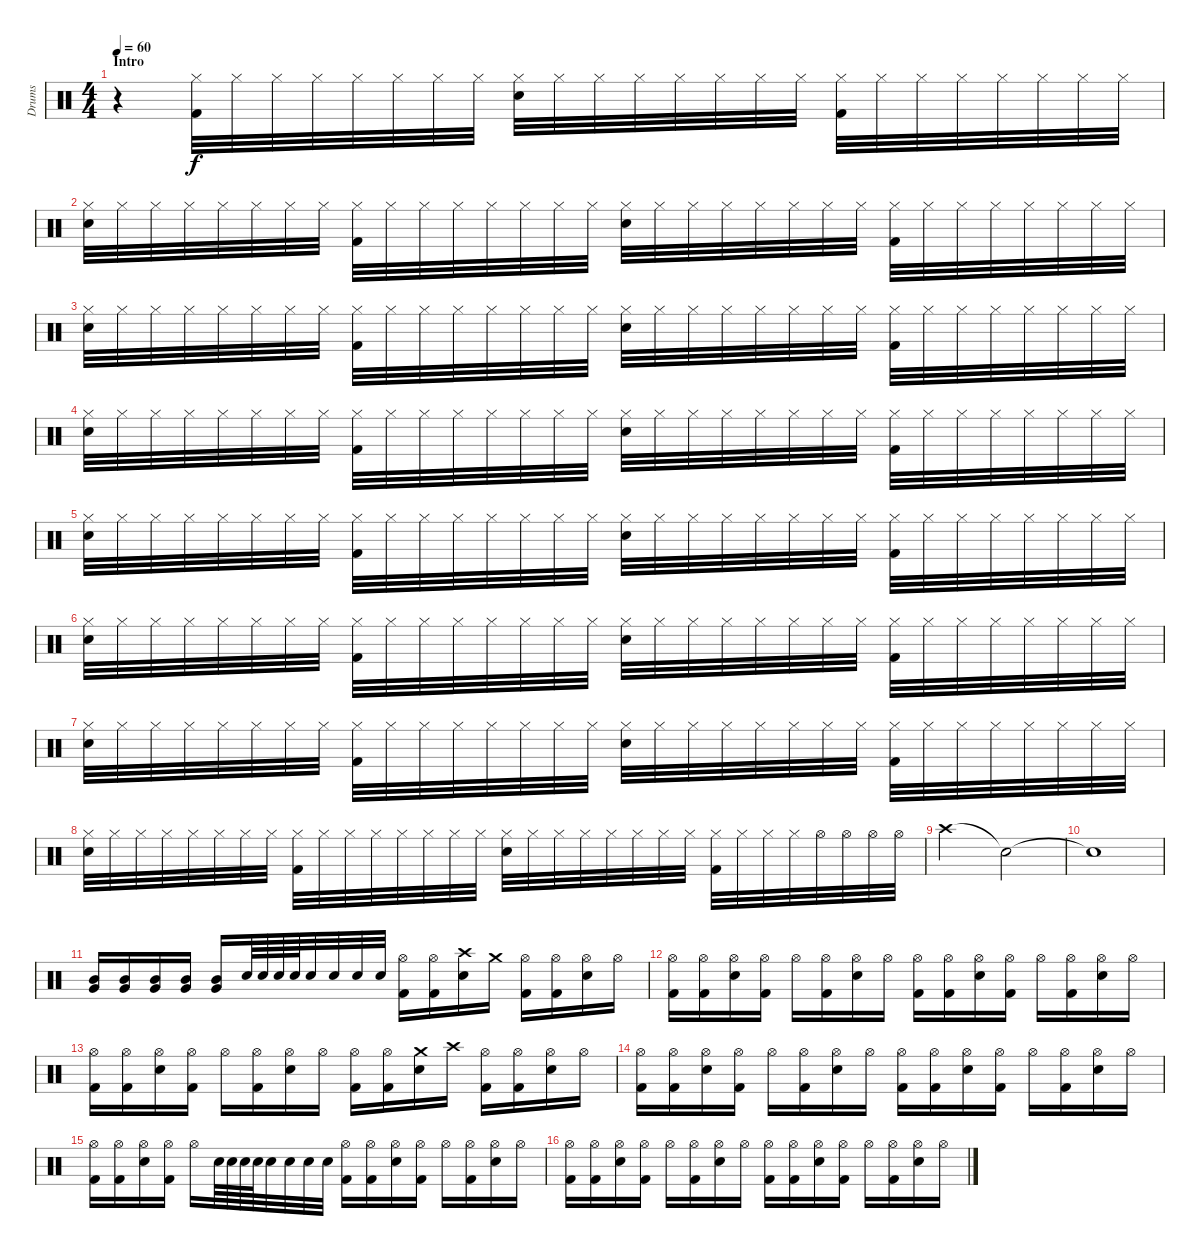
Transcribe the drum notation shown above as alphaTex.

\track ("Drums" "Drums") {instrument percussion}
\staff {score}
\articulation defaults
\ts (4 4)
\section ("" "Intro")
\tempo 60
\clef neutral
\ks c
r.4{dy f} ("Hi-Hat (closed)" "Kick (hit) 2").32 "Hi-Hat (closed)".32 "Hi-Hat (closed)".32 "Hi-Hat (closed)".32 "Hi-Hat (closed)".32 "Hi-Hat (closed)".32 "Hi-Hat (closed)".32 "Hi-Hat (closed)".32 ("Hi-Hat (closed)" "Electric Snare (hit)").32 "Hi-Hat (closed)".32 "Hi-Hat (closed)".32 "Hi-Hat (closed)".32 "Hi-Hat (closed)".32 "Hi-Hat (closed)".32 "Hi-Hat (closed)".32 "Hi-Hat (closed)".32 ("Hi-Hat (closed)" "Kick (hit) 2").32 "Hi-Hat (closed)".32 "Hi-Hat (closed)".32 "Hi-Hat (closed)".32 "Hi-Hat (closed)".32 "Hi-Hat (closed)".32 "Hi-Hat (closed)".32 "Hi-Hat (closed)".32 |
("Hi-Hat (closed)" "Electric Snare (hit)").32 "Hi-Hat (closed)".32 "Hi-Hat (closed)".32 "Hi-Hat (closed)".32 "Hi-Hat (closed)".32 "Hi-Hat (closed)".32 "Hi-Hat (closed)".32 "Hi-Hat (closed)".32 ("Hi-Hat (closed)" "Kick (hit) 2").32 "Hi-Hat (closed)".32 "Hi-Hat (closed)".32 "Hi-Hat (closed)".32 "Hi-Hat (closed)".32 "Hi-Hat (closed)".32 "Hi-Hat (closed)".32 "Hi-Hat (closed)".32 ("Hi-Hat (closed)" "Electric Snare (hit)").32 "Hi-Hat (closed)".32 "Hi-Hat (closed)".32 "Hi-Hat (closed)".32 "Hi-Hat (closed)".32 "Hi-Hat (closed)".32 "Hi-Hat (closed)".32 "Hi-Hat (closed)".32 ("Hi-Hat (closed)" "Kick (hit) 2").32 "Hi-Hat (closed)".32 "Hi-Hat (closed)".32 "Hi-Hat (closed)".32 "Hi-Hat (closed)".32 "Hi-Hat (closed)".32 "Hi-Hat (closed)".32 "Hi-Hat (closed)".32 |
("Hi-Hat (closed)" "Electric Snare (hit)").32 "Hi-Hat (closed)".32 "Hi-Hat (closed)".32 "Hi-Hat (closed)".32 "Hi-Hat (closed)".32 "Hi-Hat (closed)".32 "Hi-Hat (closed)".32 "Hi-Hat (closed)".32 ("Hi-Hat (closed)" "Kick (hit) 2").32 "Hi-Hat (closed)".32 "Hi-Hat (closed)".32 "Hi-Hat (closed)".32 "Hi-Hat (closed)".32 "Hi-Hat (closed)".32 "Hi-Hat (closed)".32 "Hi-Hat (closed)".32 ("Hi-Hat (closed)" "Electric Snare (hit)").32 "Hi-Hat (closed)".32 "Hi-Hat (closed)".32 "Hi-Hat (closed)".32 "Hi-Hat (closed)".32 "Hi-Hat (closed)".32 "Hi-Hat (closed)".32 "Hi-Hat (closed)".32 ("Hi-Hat (closed)" "Kick (hit) 2").32 "Hi-Hat (closed)".32 "Hi-Hat (closed)".32 "Hi-Hat (closed)".32 "Hi-Hat (closed)".32 "Hi-Hat (closed)".32 "Hi-Hat (closed)".32 "Hi-Hat (closed)".32 |
("Hi-Hat (closed)" "Electric Snare (hit)").32 "Hi-Hat (closed)".32 "Hi-Hat (closed)".32 "Hi-Hat (closed)".32 "Hi-Hat (closed)".32 "Hi-Hat (closed)".32 "Hi-Hat (closed)".32 "Hi-Hat (closed)".32 ("Hi-Hat (closed)" "Kick (hit) 2").32 "Hi-Hat (closed)".32 "Hi-Hat (closed)".32 "Hi-Hat (closed)".32 "Hi-Hat (closed)".32 "Hi-Hat (closed)".32 "Hi-Hat (closed)".32 "Hi-Hat (closed)".32 ("Hi-Hat (closed)" "Electric Snare (hit)").32 "Hi-Hat (closed)".32 "Hi-Hat (closed)".32 "Hi-Hat (closed)".32 "Hi-Hat (closed)".32 "Hi-Hat (closed)".32 "Hi-Hat (closed)".32 "Hi-Hat (closed)".32 ("Hi-Hat (closed)" "Kick (hit) 2").32 "Hi-Hat (closed)".32 "Hi-Hat (closed)".32 "Hi-Hat (closed)".32 "Hi-Hat (closed)".32 "Hi-Hat (closed)".32 "Hi-Hat (closed)".32 "Hi-Hat (closed)".32 |
("Hi-Hat (closed)" "Electric Snare (hit)").32 "Hi-Hat (closed)".32 "Hi-Hat (closed)".32 "Hi-Hat (closed)".32 "Hi-Hat (closed)".32 "Hi-Hat (closed)".32 "Hi-Hat (closed)".32 "Hi-Hat (closed)".32 ("Hi-Hat (closed)" "Kick (hit) 2").32 "Hi-Hat (closed)".32 "Hi-Hat (closed)".32 "Hi-Hat (closed)".32 "Hi-Hat (closed)".32 "Hi-Hat (closed)".32 "Hi-Hat (closed)".32 "Hi-Hat (closed)".32 ("Hi-Hat (closed)" "Electric Snare (hit)").32 "Hi-Hat (closed)".32 "Hi-Hat (closed)".32 "Hi-Hat (closed)".32 "Hi-Hat (closed)".32 "Hi-Hat (closed)".32 "Hi-Hat (closed)".32 "Hi-Hat (closed)".32 ("Hi-Hat (closed)" "Kick (hit) 2").32 "Hi-Hat (closed)".32 "Hi-Hat (closed)".32 "Hi-Hat (closed)".32 "Hi-Hat (closed)".32 "Hi-Hat (closed)".32 "Hi-Hat (closed)".32 "Hi-Hat (closed)".32 |
("Hi-Hat (closed)" "Electric Snare (hit)").32 "Hi-Hat (closed)".32 "Hi-Hat (closed)".32 "Hi-Hat (closed)".32 "Hi-Hat (closed)".32 "Hi-Hat (closed)".32 "Hi-Hat (closed)".32 "Hi-Hat (closed)".32 ("Hi-Hat (closed)" "Kick (hit) 2").32 "Hi-Hat (closed)".32 "Hi-Hat (closed)".32 "Hi-Hat (closed)".32 "Hi-Hat (closed)".32 "Hi-Hat (closed)".32 "Hi-Hat (closed)".32 "Hi-Hat (closed)".32 ("Hi-Hat (closed)" "Electric Snare (hit)").32 "Hi-Hat (closed)".32 "Hi-Hat (closed)".32 "Hi-Hat (closed)".32 "Hi-Hat (closed)".32 "Hi-Hat (closed)".32 "Hi-Hat (closed)".32 "Hi-Hat (closed)".32 ("Hi-Hat (closed)" "Kick (hit) 2").32 "Hi-Hat (closed)".32 "Hi-Hat (closed)".32 "Hi-Hat (closed)".32 "Hi-Hat (closed)".32 "Hi-Hat (closed)".32 "Hi-Hat (closed)".32 "Hi-Hat (closed)".32 |
("Hi-Hat (closed)" "Electric Snare (hit)").32 "Hi-Hat (closed)".32 "Hi-Hat (closed)".32 "Hi-Hat (closed)".32 "Hi-Hat (closed)".32 "Hi-Hat (closed)".32 "Hi-Hat (closed)".32 "Hi-Hat (closed)".32 ("Hi-Hat (closed)" "Kick (hit) 2").32 "Hi-Hat (closed)".32 "Hi-Hat (closed)".32 "Hi-Hat (closed)".32 "Hi-Hat (closed)".32 "Hi-Hat (closed)".32 "Hi-Hat (closed)".32 "Hi-Hat (closed)".32 ("Hi-Hat (closed)" "Electric Snare (hit)").32 "Hi-Hat (closed)".32 "Hi-Hat (closed)".32 "Hi-Hat (closed)".32 "Hi-Hat (closed)".32 "Hi-Hat (closed)".32 "Hi-Hat (closed)".32 "Hi-Hat (closed)".32 ("Hi-Hat (closed)" "Kick (hit) 2").32 "Hi-Hat (closed)".32 "Hi-Hat (closed)".32 "Hi-Hat (closed)".32 "Hi-Hat (closed)".32 "Hi-Hat (closed)".32 "Hi-Hat (closed)".32 "Hi-Hat (closed)".32 |
("Hi-Hat (closed)" "Electric Snare (hit)").32 "Hi-Hat (closed)".32 "Hi-Hat (closed)".32 "Hi-Hat (closed)".32 "Hi-Hat (closed)".32 "Hi-Hat (closed)".32 "Hi-Hat (closed)".32 "Hi-Hat (closed)".32 ("Hi-Hat (closed)" "Kick (hit) 2").32 "Hi-Hat (closed)".32 "Hi-Hat (closed)".32 "Hi-Hat (closed)".32 "Hi-Hat (closed)".32 "Hi-Hat (closed)".32 "Hi-Hat (closed)".32 "Hi-Hat (closed)".32 ("Hi-Hat (closed)" "Electric Snare (hit)").32 "Hi-Hat (closed)".32 "Hi-Hat (closed)".32 "Hi-Hat (closed)".32 "Hi-Hat (closed)".32 "Hi-Hat (closed)".32 "Hi-Hat (closed)".32 "Hi-Hat (closed)".32 ("Hi-Hat (closed)" "Kick (hit) 2").32 "Hi-Hat (closed)".32 "Hi-Hat (closed)".32 "Hi-Hat (closed)".32 "Hi-Hat (open)".32 "Hi-Hat (open)".32 "Hi-Hat (open)".32 "Hi-Hat (open)".32 |
"Crash high (hit)".2 "Snare (hit)"{t}.2 |
"Snare (hit)"{t}.1 |
("Mid Tom (hit)" "Very Low Tom (hit)").16 ("Mid Tom (hit)" "Very Low Tom (hit)").16 ("Mid Tom (hit)" "Very Low Tom (hit)").16 ("Mid Tom (hit)" "Very Low Tom (hit)").16 ("Mid Tom (hit)" "Very Low Tom (hit)").16 "Electric Snare (hit)".64 "Electric Snare (hit)".64 "Electric Snare (hit)".64 "Electric Snare (hit)".64 "Electric Snare (hit)".32 "Electric Snare (hit)".32 "Electric Snare (hit)".32 "Electric Snare (hit)".32 ("Hi-Hat (open)" "Kick (hit) 2").16 ("Hi-Hat (open)" "Kick (hit) 2").16 ("Crash high (hit)" "Electric Snare (hit)").16 "Crash medium (hit)".16 ("Hi-Hat (open)" "Kick (hit) 2").16 ("Hi-Hat (open)" "Kick (hit) 2").16 ("Hi-Hat (open)" "Electric Snare (hit)").16 "Hi-Hat (open)".16 |
("Hi-Hat (open)" "Kick (hit) 2").16 ("Hi-Hat (open)" "Kick (hit) 2").16 ("Hi-Hat (open)" "Electric Snare (hit)").16 ("Hi-Hat (open)" "Kick (hit) 2").16 "Hi-Hat (open)".16 ("Hi-Hat (open)" "Kick (hit) 2").16 ("Hi-Hat (open)" "Electric Snare (hit)").16 "Hi-Hat (open)".16 ("Hi-Hat (open)" "Kick (hit) 2").16 ("Hi-Hat (open)" "Kick (hit) 2").16 ("Hi-Hat (open)" "Electric Snare (hit)").16 ("Hi-Hat (open)" "Kick (hit) 2").16 "Hi-Hat (open)".16 ("Hi-Hat (open)" "Kick (hit) 2").16 ("Hi-Hat (open)" "Electric Snare (hit)").16 "Hi-Hat (open)".16 |
("Hi-Hat (open)" "Kick (hit) 2").16 ("Hi-Hat (open)" "Kick (hit) 2").16 ("Hi-Hat (open)" "Electric Snare (hit)").16 ("Hi-Hat (open)" "Kick (hit) 2").16 "Hi-Hat (open)".16 ("Hi-Hat (open)" "Kick (hit) 2").16 ("Hi-Hat (open)" "Electric Snare (hit)").16 "Hi-Hat (open)".16 ("Hi-Hat (open)" "Kick (hit) 2").16 ("Hi-Hat (open)" "Kick (hit) 2").16 ("Crash medium (hit)" "Electric Snare (hit)").16 "Crash high (hit)".16 ("Hi-Hat (open)" "Kick (hit) 2").16 ("Hi-Hat (open)" "Kick (hit) 2").16 ("Hi-Hat (open)" "Electric Snare (hit)").16 "Hi-Hat (open)".16 |
("Hi-Hat (open)" "Kick (hit) 2").16 ("Hi-Hat (open)" "Kick (hit) 2").16 ("Hi-Hat (open)" "Electric Snare (hit)").16 ("Hi-Hat (open)" "Kick (hit) 2").16 "Hi-Hat (open)".16 ("Hi-Hat (open)" "Kick (hit) 2").16 ("Hi-Hat (open)" "Electric Snare (hit)").16 "Hi-Hat (open)".16 ("Hi-Hat (open)" "Kick (hit) 2").16 ("Hi-Hat (open)" "Kick (hit) 2").16 ("Hi-Hat (open)" "Electric Snare (hit)").16 ("Hi-Hat (open)" "Kick (hit) 2").16 "Hi-Hat (open)".16 ("Hi-Hat (open)" "Kick (hit) 2").16 ("Hi-Hat (open)" "Electric Snare (hit)").16 "Hi-Hat (open)".16 |
("Hi-Hat (open)" "Kick (hit) 2").16 ("Hi-Hat (open)" "Kick (hit) 2").16 ("Hi-Hat (open)" "Electric Snare (hit)").16 ("Hi-Hat (open)" "Kick (hit) 2").16 "Hi-Hat (open)".16 "Electric Snare (hit)".64 "Electric Snare (hit)".64 "Electric Snare (hit)".64 "Electric Snare (hit)".64 "Electric Snare (hit)".32 "Electric Snare (hit)".32 "Electric Snare (hit)".32 "Electric Snare (hit)".32 ("Hi-Hat (open)" "Kick (hit) 2").16 ("Hi-Hat (open)" "Kick (hit) 2").16 ("Hi-Hat (open)" "Electric Snare (hit)").16 ("Hi-Hat (open)" "Kick (hit) 2").16 "Hi-Hat (open)".16 ("Hi-Hat (open)" "Kick (hit) 2").16 ("Hi-Hat (open)" "Electric Snare (hit)").16 "Hi-Hat (open)".16 |
("Hi-Hat (open)" "Kick (hit) 2").16 ("Hi-Hat (open)" "Kick (hit) 2").16 ("Hi-Hat (open)" "Electric Snare (hit)").16 ("Hi-Hat (open)" "Kick (hit) 2").16 "Hi-Hat (open)".16 ("Hi-Hat (open)" "Kick (hit) 2").16 ("Hi-Hat (open)" "Electric Snare (hit)").16 "Hi-Hat (open)".16 ("Hi-Hat (open)" "Kick (hit) 2").16 ("Hi-Hat (open)" "Kick (hit) 2").16 ("Hi-Hat (open)" "Electric Snare (hit)").16 ("Hi-Hat (open)" "Kick (hit) 2").16 "Hi-Hat (open)".16 ("Hi-Hat (open)" "Kick (hit) 2").16 ("Hi-Hat (open)" "Electric Snare (hit)").16 "Hi-Hat (open)".16
